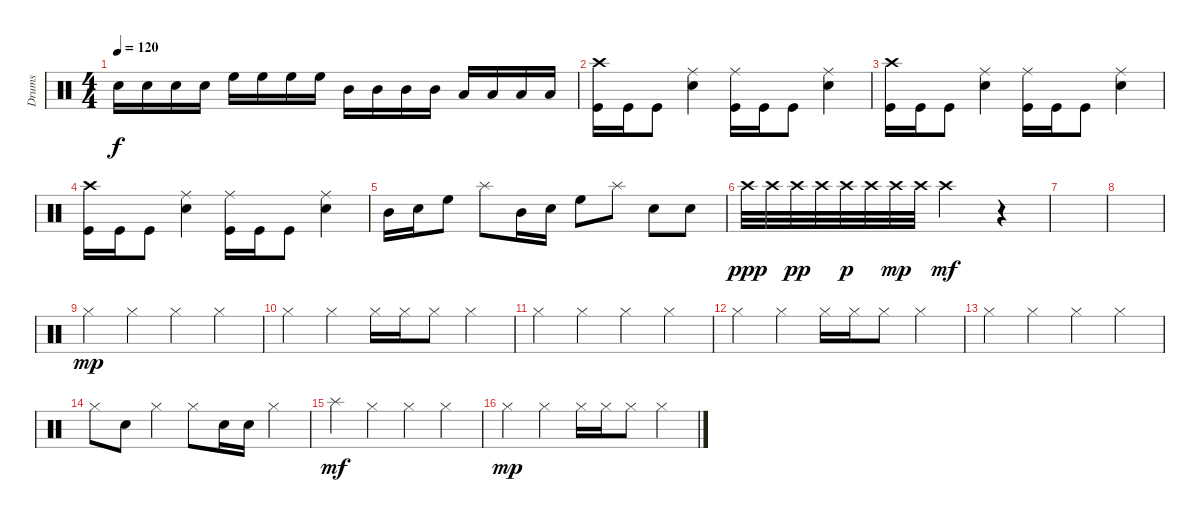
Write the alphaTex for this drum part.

\track ("Drums" "Drums") {instrument percussion}
\staff {score}
\articulation defaults
\ts (4 4)
\tempo 120
\clef neutral
\ks c "Snare (hit) 2".16{dy f} "Snare (hit) 2".16 "Snare (hit) 2".16 "Snare (hit) 2".16 "High Floor Tom (hit)".16 "High Floor Tom (hit)".16 "High Floor Tom (hit)".16 "High Floor Tom (hit)".16 "Mid Tom (hit)".16 "Mid Tom (hit)".16 "Mid Tom (hit)".16 "Mid Tom (hit)".16 "Low Tom (hit)".16 "Low Tom (hit)".16 "Low Tom (hit)".16 "Low Tom (hit)".16
|
("Crash high (hit)" "Kick (hit)").16 "Kick (hit)".16 "Kick (hit)".8 ("Ride (middle)" "Snare (hit) 2").4 ("Ride (middle)" "Kick (hit)").16 "Kick (hit)".16 "Kick (hit)".8 ("Ride (middle)" "Snare (hit) 2").4 |
("Crash high (hit)" "Kick (hit)").16 "Kick (hit)".16 "Kick (hit)".8 ("Ride (middle)" "Snare (hit) 2").4 ("Ride (middle)" "Kick (hit)").16 "Kick (hit)".16 "Kick (hit)".8 ("Ride (middle)" "Snare (hit) 2").4 |
("Crash high (hit)" "Kick (hit)").16 "Kick (hit)".16 "Kick (hit)".8 ("Ride (middle)" "Snare (hit) 2").4 ("Ride (middle)" "Kick (hit)").16 "Kick (hit)".16 "Kick (hit)".8 ("Ride (middle)" "Snare (hit) 2").4 |
"Mid Tom (hit)".16 "Snare (hit) 2".16 "High Floor Tom (hit)".8 "Splash (hit)".8 "Mid Tom (hit)".16 "Snare (hit) 2".16 "High Floor Tom (hit)".8 "Splash (hit)".8 "Snare (hit) 2".8 "Snare (hit) 2".8 |
"Crash high (hit)".32{dy ppp} "Crash high (hit)".32 "Crash high (hit)".32{dy pp} "Crash high (hit)".32 "Crash high (hit)".32{dy p} "Crash high (hit)".32 "Crash high (hit)".32{dy mp} "Crash high (hit)".32 "Crash high (hit)".2{dy mf} r.4 |
|
|
"Hi-Hat (closed)".4{dy mp} "Hi-Hat (closed)".4 "Hi-Hat (closed)".4 "Hi-Hat (closed)".4 |
"Hi-Hat (closed)".4 "Hi-Hat (closed)".4 "Hi-Hat (closed)".16 "Hi-Hat (closed)".16 "Hi-Hat (closed)".8 "Hi-Hat (closed)".4 |
"Hi-Hat (closed)".4 "Hi-Hat (closed)".4 "Hi-Hat (closed)".4 "Hi-Hat (closed)".4 |
"Hi-Hat (closed)".4 "Hi-Hat (closed)".4 "Hi-Hat (closed)".16 "Hi-Hat (closed)".16 "Hi-Hat (closed)".8 "Hi-Hat (closed)".4 |
"Hi-Hat (closed)".4 "Hi-Hat (closed)".4 "Hi-Hat (closed)".4 "Hi-Hat (closed)".4 |
"Hi-Hat (closed)".8 "Snare (hit) 2".8 "Hi-Hat (closed)".4 "Hi-Hat (closed)".8 "Snare (hit) 2".16 "Snare (hit) 2".16 "Hi-Hat (closed)".4 |
"Splash (hit)".4{dy mf} "Hi-Hat (closed)".4 "Hi-Hat (closed)".4 "Hi-Hat (closed)".4 |
"Hi-Hat (closed)".4{dy mp} "Hi-Hat (closed)".4 "Hi-Hat (closed)".16 "Hi-Hat (closed)".16 "Hi-Hat (closed)".8 "Hi-Hat (closed)".4
